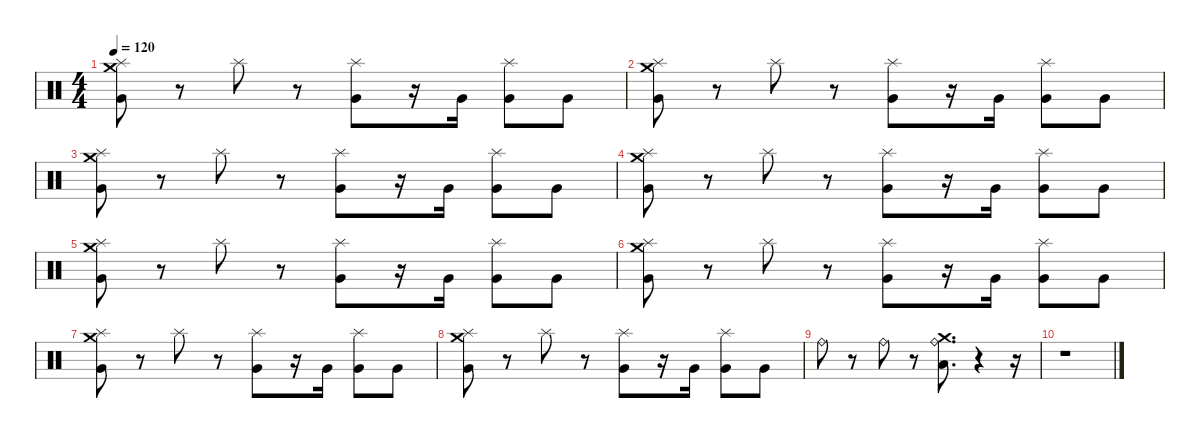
\defaultSystemsLayout 4
\hideDynamics
\bracketExtendMode nobrackets
\singleTrackTrackNamePolicy hidden
\multiTrackTrackNamePolicy hidden
\firstSystemTrackNameMode fullname
\firstSystemTrackNameOrientation horizontal
\otherSystemsTrackNameOrientation horizontal
\track ("Percussions" "drm.") {instrument percussion}
\staff {score}
\articulation defaults
\ts (4 4)
\tempo 120
\clef neutral
\ks c
("Very Low Tom (hit)" "Crash medium (hit)" "Splash (hit)").8{dy fff beam Down} r.8{beam Down} "Splash (hit)".8{beam Down} r.8{beam Down} ("Very Low Tom (hit)" "Splash (hit)").8{beam Down} r.16{beam Down} "Very Low Tom (hit)".16{beam Down} ("Very Low Tom (hit)" "Splash (hit)").8{beam Down} "Very Low Tom (hit)".8{beam Down} |
("Very Low Tom (hit)" "Crash medium (hit)" "Splash (hit)").8{beam Down} r.8{beam Down} "Splash (hit)".8{beam Down} r.8{beam Down} ("Very Low Tom (hit)" "Splash (hit)").8{beam Down} r.16{beam Down} "Very Low Tom (hit)".16{beam Down} ("Very Low Tom (hit)" "Splash (hit)").8{beam Down} "Very Low Tom (hit)".8{beam Down} |
("Very Low Tom (hit)" "Crash medium (hit)" "Splash (hit)").8{beam Down} r.8{beam Down} "Splash (hit)".8{beam Down} r.8{beam Down} ("Very Low Tom (hit)" "Splash (hit)").8{beam Down} r.16{beam Down} "Very Low Tom (hit)".16{beam Down} ("Very Low Tom (hit)" "Splash (hit)").8{beam Down} "Very Low Tom (hit)".8{beam Down} |
("Very Low Tom (hit)" "Crash medium (hit)" "Splash (hit)").8{beam Down} r.8{beam Down} "Splash (hit)".8{beam Down} r.8{beam Down} ("Very Low Tom (hit)" "Splash (hit)").8{beam Down} r.16{beam Down} "Very Low Tom (hit)".16{beam Down} ("Very Low Tom (hit)" "Splash (hit)").8{beam Down} "Very Low Tom (hit)".8{beam Down} |
("Very Low Tom (hit)" "Crash medium (hit)" "Splash (hit)").8{beam Down} r.8{beam Down} "Splash (hit)".8{beam Down} r.8{beam Down} ("Very Low Tom (hit)" "Splash (hit)").8{beam Down} r.16{beam Down} "Very Low Tom (hit)".16{beam Down} ("Very Low Tom (hit)" "Splash (hit)").8{beam Down} "Very Low Tom (hit)".8{beam Down} |
("Very Low Tom (hit)" "Crash medium (hit)" "Splash (hit)").8{beam Down} r.8{beam Down} "Splash (hit)".8{beam Down} r.8{beam Down} ("Very Low Tom (hit)" "Splash (hit)").8{beam Down} r.16{beam Down} "Very Low Tom (hit)".16{beam Down} ("Very Low Tom (hit)" "Splash (hit)").8{beam Down} "Very Low Tom (hit)".8{beam Down} |
("Very Low Tom (hit)" "Crash medium (hit)" "Splash (hit)").8{beam Down} r.8{beam Down} "Splash (hit)".8{beam Down} r.8{beam Down} ("Very Low Tom (hit)" "Splash (hit)").8{beam Down} r.16{beam Down} "Very Low Tom (hit)".16{beam Down} ("Very Low Tom (hit)" "Splash (hit)").8{beam Down} "Very Low Tom (hit)".8{beam Down} |
("Very Low Tom (hit)" "Crash medium (hit)" "Splash (hit)").8{beam Down} r.8{beam Down} "Splash (hit)".8{beam Down} r.8{beam Down} ("Very Low Tom (hit)" "Splash (hit)").8{beam Down} r.16{beam Down} "Very Low Tom (hit)".16{beam Down} ("Very Low Tom (hit)" "Splash (hit)").8{beam Down} "Very Low Tom (hit)".8{beam Down} |
"Ride (bell)".8{beam Down} r.8{beam Down} "Ride (bell)".8{beam Down} r.8{beam Down} ("Crash medium (hit)" "Ride (bell)" "Low Tom (hit)").8{d beam Down} r.4{beam Down} r.16{beam Down} |
r.1{beam Down}
